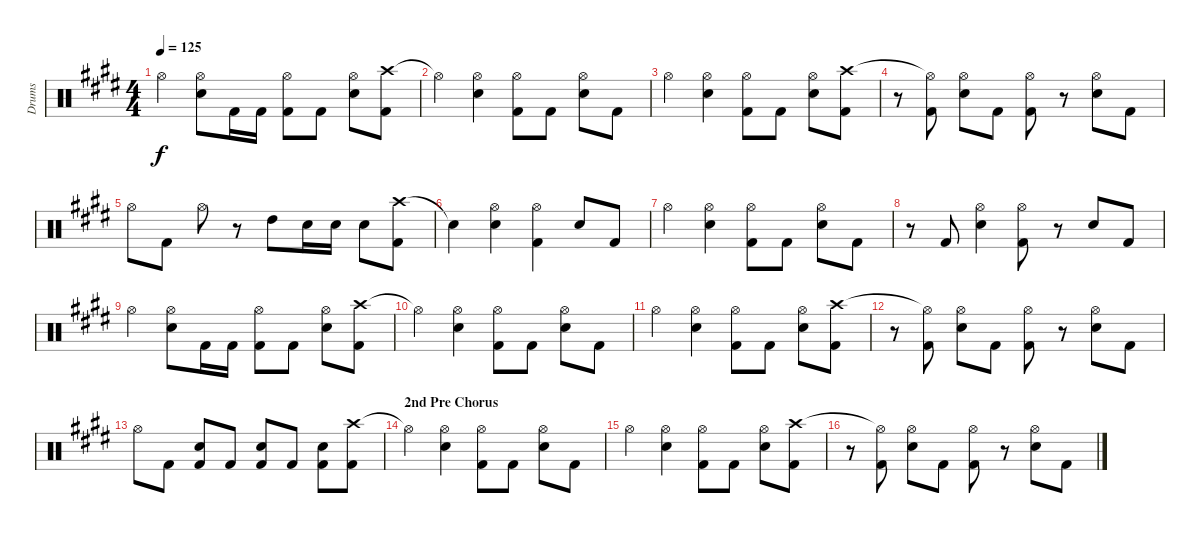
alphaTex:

\track ("Drums" "Drums") {instrument percussion}
\staff {score}
\articulation defaults
\ts (4 4)
\tempo 125
\clef neutral
\ks e "Hi-Hat (open)".4{dy f}
("Hi-Hat (open)" "Electric Snare (hit)").8 "Kick (hit) 2".16 "Kick (hit) 2".16 ("Hi-Hat (open)" "Kick (hit) 2").8 "Kick (hit) 2".8 ("Hi-Hat (open)" "Electric Snare (hit)").8 ("Crash high (hit)" "Kick (hit) 2").8 |
"Hi-Hat (open)"{t}.4 ("Hi-Hat (open)" "Electric Snare (hit)").4 ("Hi-Hat (open)" "Kick (hit) 2").8 "Kick (hit) 2".8 ("Hi-Hat (open)" "Electric Snare (hit)").8 "Kick (hit) 2".8 |
"Hi-Hat (open)".4 ("Hi-Hat (open)" "Electric Snare (hit)").4 ("Hi-Hat (open)" "Kick (hit) 2").8 "Kick (hit) 2".8 ("Hi-Hat (open)" "Electric Snare (hit)").8 ("Crash high (hit)" "Kick (hit) 2").8 |
r.8 ("Hi-Hat (open)"{t} "Kick (hit) 2").8 ("Hi-Hat (open)" "Electric Snare (hit)").8 "Kick (hit) 2".8 ("Hi-Hat (open)" "Kick (hit) 2").8 r.8 ("Hi-Hat (open)" "Electric Snare (hit)").8 "Kick (hit) 2".8 |
"Hi-Hat (open)".8 "Kick (hit) 2".8 "Hi-Hat (open)".8 r.8 "High Tom (hit)".8 "Electric Snare (hit)".16 "Electric Snare (hit)".16 "Electric Snare (hit)".8 ("Crash high (hit)" "Kick (hit) 2").8 |
"Snare (hit)"{t}.4 ("Hi-Hat (open)" "Electric Snare (hit)").4 ("Hi-Hat (open)" "Kick (hit) 2").4 "Electric Snare (hit)".8 "Kick (hit) 2".8 |
"Hi-Hat (open)".4 ("Hi-Hat (open)" "Electric Snare (hit)").4 ("Hi-Hat (open)" "Kick (hit) 2").8 "Kick (hit) 2".8 ("Hi-Hat (open)" "Electric Snare (hit)").8 "Kick (hit) 2".8 |
r.8 "Kick (hit) 2".8 ("Hi-Hat (open)" "Electric Snare (hit)").4 ("Hi-Hat (open)" "Kick (hit) 2").8 r.8 "Electric Snare (hit)".8 "Kick (hit) 2".8 |
"Hi-Hat (open)".4 ("Hi-Hat (open)" "Electric Snare (hit)").8 "Kick (hit) 2".16 "Kick (hit) 2".16 ("Hi-Hat (open)" "Kick (hit) 2").8 "Kick (hit) 2".8 ("Hi-Hat (open)" "Electric Snare (hit)").8 ("Crash high (hit)" "Kick (hit) 2").8 |
"Hi-Hat (open)"{t}.4 ("Hi-Hat (open)" "Electric Snare (hit)").4 ("Hi-Hat (open)" "Kick (hit) 2").8 "Kick (hit) 2".8 ("Hi-Hat (open)" "Electric Snare (hit)").8 "Kick (hit) 2".8 |
"Hi-Hat (open)".4 ("Hi-Hat (open)" "Electric Snare (hit)").4 ("Hi-Hat (open)" "Kick (hit) 2").8 "Kick (hit) 2".8 ("Hi-Hat (open)" "Electric Snare (hit)").8 ("Crash high (hit)" "Kick (hit) 2").8 |
r.8 ("Hi-Hat (open)"{t} "Kick (hit) 2").8 ("Hi-Hat (open)" "Electric Snare (hit)").8 "Kick (hit) 2".8 ("Hi-Hat (open)" "Kick (hit) 2").8 r.8 ("Hi-Hat (open)" "Electric Snare (hit)").8 "Kick (hit) 2".8 |
"Hi-Hat (open)".8 "Kick (hit) 2".8 ("Electric Snare (hit)" "Kick (hit) 2").8 "Kick (hit) 2".8 ("Electric Snare (hit)" "Kick (hit) 2").8 "Kick (hit) 2".8 ("Electric Snare (hit)" "Kick (hit) 2").8 ("Crash high (hit)" "Kick (hit) 2").8 |
\section ("" "2nd Pre Chorus")
"Hi-Hat (open)"{t}.4 ("Hi-Hat (open)" "Electric Snare (hit)").4 ("Hi-Hat (open)" "Kick (hit) 2").8 "Kick (hit) 2".8 ("Hi-Hat (open)" "Electric Snare (hit)").8 "Kick (hit) 2".8 |
"Hi-Hat (open)".4 ("Hi-Hat (open)" "Electric Snare (hit)").4 ("Hi-Hat (open)" "Kick (hit) 2").8 "Kick (hit) 2".8 ("Hi-Hat (open)" "Electric Snare (hit)").8 ("Crash high (hit)" "Kick (hit) 2").8 |
r.8 ("Hi-Hat (open)"{t} "Kick (hit) 2").8 ("Hi-Hat (open)" "Electric Snare (hit)").8 "Kick (hit) 2".8 ("Hi-Hat (open)" "Kick (hit) 2").8 r.8 ("Hi-Hat (open)" "Electric Snare (hit)").8 "Kick (hit) 2".8
